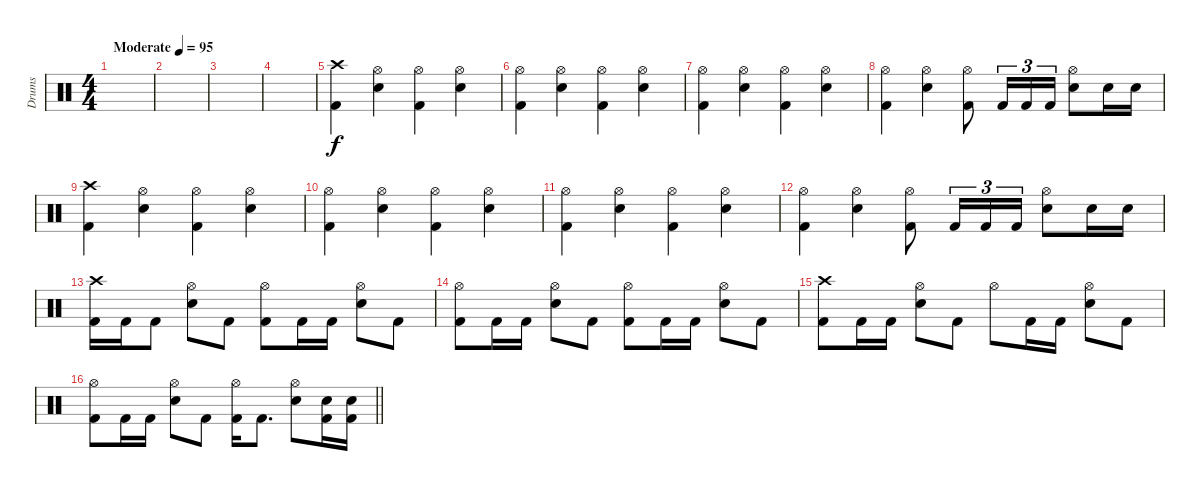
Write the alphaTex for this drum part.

\track ("Drums" "Drums") {instrument percussion}
\staff {score}
\articulation defaults
\ts (4 4)
\tempo (95 "Moderate")
\clef neutral
\ks c
|
|
|
|
("Crash high (hit)" "Kick (hit) 2").4 ("Hi-Hat (open)" "Electric Snare (hit)").4 ("Hi-Hat (open)" "Kick (hit) 2").4 ("Hi-Hat (open)" "Electric Snare (hit)").4 |
("Hi-Hat (open)" "Kick (hit) 2").4 ("Hi-Hat (open)" "Electric Snare (hit)").4 ("Hi-Hat (open)" "Kick (hit) 2").4 ("Hi-Hat (open)" "Electric Snare (hit)").4 |
("Hi-Hat (open)" "Kick (hit) 2").4 ("Hi-Hat (open)" "Electric Snare (hit)").4 ("Hi-Hat (open)" "Kick (hit) 2").4 ("Hi-Hat (open)" "Electric Snare (hit)").4 |
("Hi-Hat (open)" "Kick (hit) 2").4 ("Hi-Hat (open)" "Electric Snare (hit)").4 ("Hi-Hat (open)" "Kick (hit) 2").8 "Kick (hit) 2".16{tu (3 2)} "Kick (hit) 2".16{tu (3 2)} "Kick (hit) 2".16{tu (3 2)} ("Hi-Hat (open)" "Electric Snare (hit)").8 "Electric Snare (hit)".16 "Electric Snare (hit)".16 |
("Crash high (hit)" "Kick (hit) 2").4 ("Hi-Hat (open)" "Electric Snare (hit)").4 ("Hi-Hat (open)" "Kick (hit) 2").4 ("Hi-Hat (open)" "Electric Snare (hit)").4 |
("Hi-Hat (open)" "Kick (hit) 2").4 ("Hi-Hat (open)" "Electric Snare (hit)").4 ("Hi-Hat (open)" "Kick (hit) 2").4 ("Hi-Hat (open)" "Electric Snare (hit)").4 |
("Hi-Hat (open)" "Kick (hit) 2").4 ("Hi-Hat (open)" "Electric Snare (hit)").4 ("Hi-Hat (open)" "Kick (hit) 2").4 ("Hi-Hat (open)" "Electric Snare (hit)").4 |
("Hi-Hat (open)" "Kick (hit) 2").4 ("Hi-Hat (open)" "Electric Snare (hit)").4 ("Hi-Hat (open)" "Kick (hit) 2").8 "Kick (hit) 2".16{tu (3 2)} "Kick (hit) 2".16{tu (3 2)} "Kick (hit) 2".16{tu (3 2)} ("Hi-Hat (open)" "Electric Snare (hit)").8 "Electric Snare (hit)".16 "Electric Snare (hit)".16 |
("Crash high (hit)" "Kick (hit) 2").16 "Kick (hit) 2".16 "Kick (hit) 2".8 ("Hi-Hat (open)" "Electric Snare (hit)").8 "Kick (hit) 2".8 ("Hi-Hat (open)" "Kick (hit) 2").8 "Kick (hit) 2".16 "Kick (hit) 2".16 ("Hi-Hat (open)" "Electric Snare (hit)").8 "Kick (hit) 2".8 |
("Hi-Hat (open)" "Kick (hit) 2").8 "Kick (hit) 2".16 "Kick (hit) 2".16 ("Hi-Hat (open)" "Electric Snare (hit)").8 "Kick (hit) 2".8 ("Hi-Hat (open)" "Kick (hit) 2").8 "Kick (hit) 2".16 "Kick (hit) 2".16 ("Hi-Hat (open)" "Electric Snare (hit)").8 "Kick (hit) 2".8 |
("Crash high (hit)" "Kick (hit) 2").8 "Kick (hit) 2".16 "Kick (hit) 2".16 ("Hi-Hat (open)" "Electric Snare (hit)").8 "Kick (hit) 2".8 "Hi-Hat (open)".8 "Kick (hit) 2".16 "Kick (hit) 2".16 ("Hi-Hat (open)" "Electric Snare (hit)").8 "Kick (hit) 2".8 |
\barLineRight lightlight
("Hi-Hat (open)" "Kick (hit) 2").8 "Kick (hit) 2".16 "Kick (hit) 2".16 ("Hi-Hat (open)" "Electric Snare (hit)").8 "Kick (hit) 2".8 ("Hi-Hat (open)" "Kick (hit) 2").16 "Kick (hit) 2".8{d} ("Hi-Hat (open)" "Electric Snare (hit)").8 ("Electric Snare (hit)" "Kick (hit) 2").16 ("Electric Snare (hit)" "Kick (hit) 2").16
